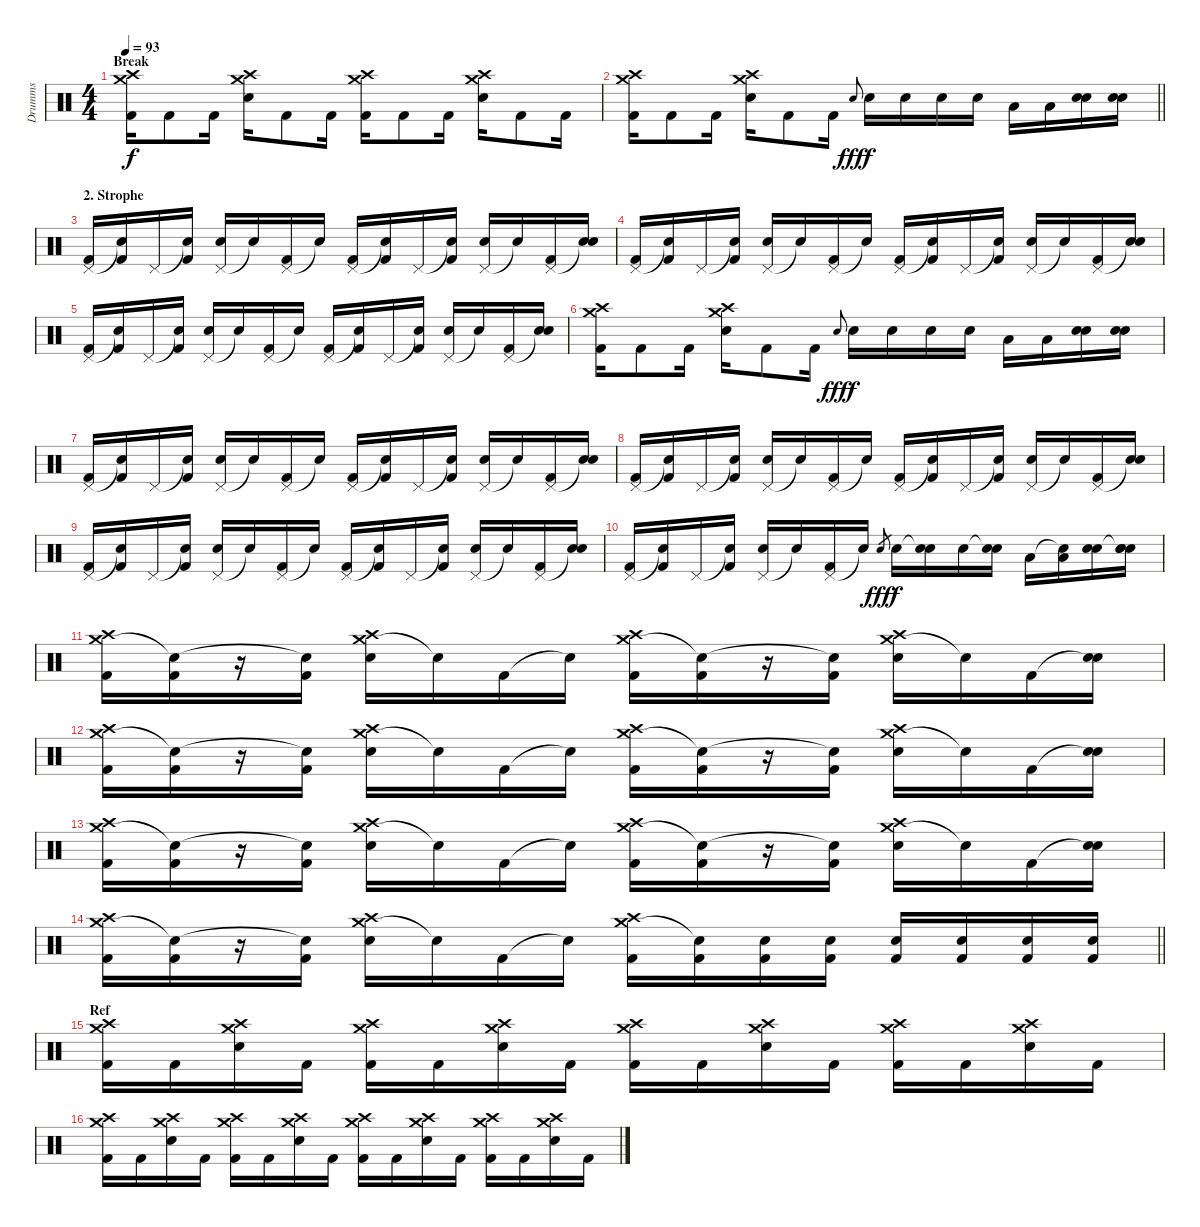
\track ("Drumms" "Drumms") {instrument percussion}
\staff {score}
\articulation defaults
\ts (4 4)
\section ("" "Break")
\tempo 93
\clef neutral
\ks c
("Crash medium (hit)" "Crash high (hit)" "Kick (hit) 2").16{dy f} "Kick (hit) 2".8 "Kick (hit) 2".16 ("Crash medium (hit)" "Crash high (hit)" "Electric Snare (hit)").16 "Kick (hit) 2".8 "Kick (hit) 2".16 ("Crash medium (hit)" "Crash high (hit)" "Kick (hit) 2").16 "Kick (hit) 2".8 "Kick (hit) 2".16 ("Crash medium (hit)" "Crash high (hit)" "Electric Snare (hit)").16 "Kick (hit) 2".8 "Kick (hit) 2".16 |
\barLineRight lightlight
("Crash medium (hit)" "Crash high (hit)" "Kick (hit) 2").16 "Kick (hit) 2".8 "Kick (hit) 2".16 ("Crash medium (hit)" "Crash high (hit)" "Electric Snare (hit)").16 "Kick (hit) 2".8 "Kick (hit) 2".16 "Electric Snare (hit)".8{gr onbeat dy fff} "Electric Snare (hit)".16{dy f} "Electric Snare (hit)".16 "Snare (hit) 2".16 "Snare (hit) 2".16 "Low Tom (hit)".16 "Low Tom (hit)".16 ("Electric Snare (hit)" "Snare (hit) 2").16 ("Electric Snare (hit)" "Snare (hit) 2").16 |
\section ("" "2. Strophe")
("Pedal Hi-Hat (hit)" "Kick (hit) 2").16 ("Snare (hit)"{t} "Kick (hit) 2").16 "Pedal Hi-Hat (hit)".16 ("Snare (hit)"{t} "Kick (hit) 2").16 ("Pedal Hi-Hat (hit)" "Electric Snare (hit)").16 "Snare (hit)"{t}.16 ("Pedal Hi-Hat (hit)" "Kick (hit) 2").16 "Snare (hit)"{t}.16 ("Pedal Hi-Hat (hit)" "Kick (hit) 2").16 ("Snare (hit)"{t} "Kick (hit) 2").16 "Pedal Hi-Hat (hit)".16 ("Snare (hit)"{t} "Kick (hit) 2").16 ("Pedal Hi-Hat (hit)" "Electric Snare (hit)").16 "Snare (hit)"{t}.16 ("Pedal Hi-Hat (hit)" "Kick (hit) 2").16 ("Snare (hit)"{t} "Electric Snare (hit)").16 |
("Pedal Hi-Hat (hit)" "Kick (hit) 2").16 ("Snare (hit)"{t} "Kick (hit) 2").16 "Pedal Hi-Hat (hit)".16 ("Snare (hit)"{t} "Kick (hit) 2").16 ("Pedal Hi-Hat (hit)" "Electric Snare (hit)").16 "Snare (hit)"{t}.16 ("Pedal Hi-Hat (hit)" "Kick (hit) 2").16 "Snare (hit)"{t}.16 ("Pedal Hi-Hat (hit)" "Kick (hit) 2").16 ("Snare (hit)"{t} "Kick (hit) 2").16 "Pedal Hi-Hat (hit)".16 ("Snare (hit)"{t} "Kick (hit) 2").16 ("Pedal Hi-Hat (hit)" "Electric Snare (hit)").16 "Snare (hit)"{t}.16 ("Pedal Hi-Hat (hit)" "Kick (hit) 2").16 ("Snare (hit)"{t} "Electric Snare (hit)").16 |
("Pedal Hi-Hat (hit)" "Kick (hit) 2").16 ("Snare (hit)"{t} "Kick (hit) 2").16 "Pedal Hi-Hat (hit)".16 ("Snare (hit)"{t} "Kick (hit) 2").16 ("Pedal Hi-Hat (hit)" "Electric Snare (hit)").16 "Snare (hit)"{t}.16 ("Pedal Hi-Hat (hit)" "Kick (hit) 2").16 "Snare (hit)"{t}.16 ("Pedal Hi-Hat (hit)" "Kick (hit) 2").16 ("Snare (hit)"{t} "Kick (hit) 2").16 "Pedal Hi-Hat (hit)".16 ("Snare (hit)"{t} "Kick (hit) 2").16 ("Pedal Hi-Hat (hit)" "Electric Snare (hit)").16 "Snare (hit)"{t}.16 ("Pedal Hi-Hat (hit)" "Kick (hit) 2").16 ("Snare (hit)"{t} "Electric Snare (hit)").16 |
("Crash medium (hit)" "Crash high (hit)" "Kick (hit) 2").16 "Kick (hit) 2".8 "Kick (hit) 2".16 ("Crash medium (hit)" "Crash high (hit)" "Electric Snare (hit)").16 "Kick (hit) 2".8 "Kick (hit) 2".16 "Electric Snare (hit)".8{gr onbeat dy fff} "Electric Snare (hit)".16{dy f} "Electric Snare (hit)".16 "Snare (hit) 2".16 "Snare (hit) 2".16 "Low Tom (hit)".16 "Low Tom (hit)".16 ("Electric Snare (hit)" "Snare (hit) 2").16 ("Electric Snare (hit)" "Snare (hit) 2").16 |
("Pedal Hi-Hat (hit)" "Kick (hit) 2").16 ("Snare (hit)"{t} "Kick (hit) 2").16 "Pedal Hi-Hat (hit)".16 ("Snare (hit)"{t} "Kick (hit) 2").16 ("Pedal Hi-Hat (hit)" "Electric Snare (hit)").16 "Snare (hit)"{t}.16 ("Pedal Hi-Hat (hit)" "Kick (hit) 2").16 "Snare (hit)"{t}.16 ("Pedal Hi-Hat (hit)" "Kick (hit) 2").16 ("Snare (hit)"{t} "Kick (hit) 2").16 "Pedal Hi-Hat (hit)".16 ("Snare (hit)"{t} "Kick (hit) 2").16 ("Pedal Hi-Hat (hit)" "Electric Snare (hit)").16 "Snare (hit)"{t}.16 ("Pedal Hi-Hat (hit)" "Kick (hit) 2").16 ("Snare (hit)"{t} "Electric Snare (hit)").16 |
("Pedal Hi-Hat (hit)" "Kick (hit) 2").16 ("Snare (hit)"{t} "Kick (hit) 2").16 "Pedal Hi-Hat (hit)".16 ("Snare (hit)"{t} "Kick (hit) 2").16 ("Pedal Hi-Hat (hit)" "Electric Snare (hit)").16 "Snare (hit)"{t}.16 ("Pedal Hi-Hat (hit)" "Kick (hit) 2").16 "Snare (hit)"{t}.16 ("Pedal Hi-Hat (hit)" "Kick (hit) 2").16 ("Snare (hit)"{t} "Kick (hit) 2").16 "Pedal Hi-Hat (hit)".16 ("Snare (hit)"{t} "Kick (hit) 2").16 ("Pedal Hi-Hat (hit)" "Electric Snare (hit)").16 "Snare (hit)"{t}.16 ("Pedal Hi-Hat (hit)" "Kick (hit) 2").16 ("Snare (hit)"{t} "Electric Snare (hit)").16 |
("Pedal Hi-Hat (hit)" "Kick (hit) 2").16 ("Snare (hit)"{t} "Kick (hit) 2").16 "Pedal Hi-Hat (hit)".16 ("Snare (hit)"{t} "Kick (hit) 2").16 ("Pedal Hi-Hat (hit)" "Electric Snare (hit)").16 "Snare (hit)"{t}.16 ("Pedal Hi-Hat (hit)" "Kick (hit) 2").16 "Snare (hit)"{t}.16 ("Pedal Hi-Hat (hit)" "Kick (hit) 2").16 ("Snare (hit)"{t} "Kick (hit) 2").16 "Pedal Hi-Hat (hit)".16 ("Snare (hit)"{t} "Kick (hit) 2").16 ("Pedal Hi-Hat (hit)" "Electric Snare (hit)").16 "Snare (hit)"{t}.16 ("Pedal Hi-Hat (hit)" "Kick (hit) 2").16 ("Snare (hit)"{t} "Electric Snare (hit)").16 |
("Pedal Hi-Hat (hit)" "Kick (hit) 2").16 ("Snare (hit)"{t} "Kick (hit) 2").16 "Pedal Hi-Hat (hit)".16 ("Snare (hit)"{t} "Kick (hit) 2").16 ("Pedal Hi-Hat (hit)" "Electric Snare (hit)").16 "Snare (hit)"{t}.16 ("Pedal Hi-Hat (hit)" "Kick (hit) 2").16 "Snare (hit)"{t}.16 "Electric Snare (hit)".8{gr dy fff} "Electric Snare (hit)".16{dy f} ("Snare (hit)"{t} "Electric Snare (hit)").16 "Snare (hit) 2".16 ("Snare (hit)"{t} "Snare (hit) 2").16 "Low Tom (hit)".16 ("Snare (hit)"{t} "Low Tom (hit)").16 ("Electric Snare (hit)" "Snare (hit) 2").16 ("Snare (hit)"{t} "Electric Snare (hit)" "Snare (hit) 2").16 |
("Crash medium (hit)" "Crash high (hit)" "Kick (hit) 2").16 ("Snare (hit)"{t} "Kick (hit) 2").16 r.16 ("Snare (hit)"{t} "Kick (hit) 2").16 ("Crash medium (hit)" "Crash high (hit)" "Electric Snare (hit)").16 "Snare (hit)"{t}.16 "Kick (hit) 2".16 "Snare (hit)"{t}.16 ("Crash medium (hit)" "Crash high (hit)" "Kick (hit) 2").16 ("Snare (hit)"{t} "Kick (hit) 2").16 r.16 ("Snare (hit)"{t} "Kick (hit) 2").16 ("Crash medium (hit)" "Crash high (hit)" "Electric Snare (hit)").16 "Snare (hit)"{t}.16 "Kick (hit) 2".16 ("Snare (hit)"{t} "Electric Snare (hit)").16 |
("Crash medium (hit)" "Crash high (hit)" "Kick (hit) 2").16 ("Snare (hit)"{t} "Kick (hit) 2").16 r.16 ("Snare (hit)"{t} "Kick (hit) 2").16 ("Crash medium (hit)" "Crash high (hit)" "Electric Snare (hit)").16 "Snare (hit)"{t}.16 "Kick (hit) 2".16 "Snare (hit)"{t}.16 ("Crash medium (hit)" "Crash high (hit)" "Kick (hit) 2").16 ("Snare (hit)"{t} "Kick (hit) 2").16 r.16 ("Snare (hit)"{t} "Kick (hit) 2").16 ("Crash medium (hit)" "Crash high (hit)" "Electric Snare (hit)").16 "Snare (hit)"{t}.16 "Kick (hit) 2".16 ("Snare (hit)"{t} "Electric Snare (hit)").16 |
("Crash medium (hit)" "Crash high (hit)" "Kick (hit) 2").16 ("Snare (hit)"{t} "Kick (hit) 2").16 r.16 ("Snare (hit)"{t} "Kick (hit) 2").16 ("Crash medium (hit)" "Crash high (hit)" "Electric Snare (hit)").16 "Snare (hit)"{t}.16 "Kick (hit) 2".16 "Snare (hit)"{t}.16 ("Crash medium (hit)" "Crash high (hit)" "Kick (hit) 2").16 ("Snare (hit)"{t} "Kick (hit) 2").16 r.16 ("Snare (hit)"{t} "Kick (hit) 2").16 ("Crash medium (hit)" "Crash high (hit)" "Electric Snare (hit)").16 "Snare (hit)"{t}.16 "Kick (hit) 2".16 ("Snare (hit)"{t} "Electric Snare (hit)").16 |
\barLineRight lightlight
("Crash medium (hit)" "Crash high (hit)" "Kick (hit) 2").16 ("Snare (hit)"{t} "Kick (hit) 2").16 r.16 ("Snare (hit)"{t} "Kick (hit) 2").16 ("Crash medium (hit)" "Crash high (hit)" "Electric Snare (hit)").16 "Snare (hit)"{t}.16 "Kick (hit) 2".16 "Snare (hit)"{t}.16 ("Crash medium (hit)" "Crash high (hit)" "Kick (hit) 2").16 ("Snare (hit)"{t} "Kick (hit) 2").16 ("Electric Snare (hit)" "Kick (hit) 2").16 ("Electric Snare (hit)" "Kick (hit) 2").16 ("Electric Snare (hit)" "Kick (hit) 2").16 ("Electric Snare (hit)" "Kick (hit) 2").16 ("Electric Snare (hit)" "Kick (hit) 2").16 ("Electric Snare (hit)" "Kick (hit) 2").16 |
\section ("" "Ref")
("Crash medium (hit)" "Crash high (hit)" "Kick (hit) 2").16 "Kick (hit) 2".16 ("Crash medium (hit)" "Crash high (hit)" "Electric Snare (hit)").16 "Kick (hit) 2".16 ("Crash medium (hit)" "Crash high (hit)" "Kick (hit) 2").16 "Kick (hit) 2".16 ("Crash medium (hit)" "Crash high (hit)" "Electric Snare (hit)").16 "Kick (hit) 2".16 ("Crash medium (hit)" "Crash high (hit)" "Kick (hit) 2").16 "Kick (hit) 2".16 ("Crash medium (hit)" "Crash high (hit)" "Electric Snare (hit)").16 "Kick (hit) 2".16 ("Crash medium (hit)" "Crash high (hit)" "Kick (hit) 2").16 "Kick (hit) 2".16 ("Crash medium (hit)" "Crash high (hit)" "Electric Snare (hit)").16 "Kick (hit) 2".16 |
("Crash medium (hit)" "Crash high (hit)" "Kick (hit) 2").16 "Kick (hit) 2".16 ("Crash medium (hit)" "Crash high (hit)" "Electric Snare (hit)").16 "Kick (hit) 2".16 ("Crash medium (hit)" "Crash high (hit)" "Kick (hit) 2").16 "Kick (hit) 2".16 ("Crash medium (hit)" "Crash high (hit)" "Electric Snare (hit)").16 "Kick (hit) 2".16 ("Crash medium (hit)" "Crash high (hit)" "Kick (hit) 2").16 "Kick (hit) 2".16 ("Crash medium (hit)" "Crash high (hit)" "Electric Snare (hit)").16 "Kick (hit) 2".16 ("Crash medium (hit)" "Crash high (hit)" "Kick (hit) 2").16 "Kick (hit) 2".16 ("Crash medium (hit)" "Crash high (hit)" "Electric Snare (hit)").16 "Kick (hit) 2".16
